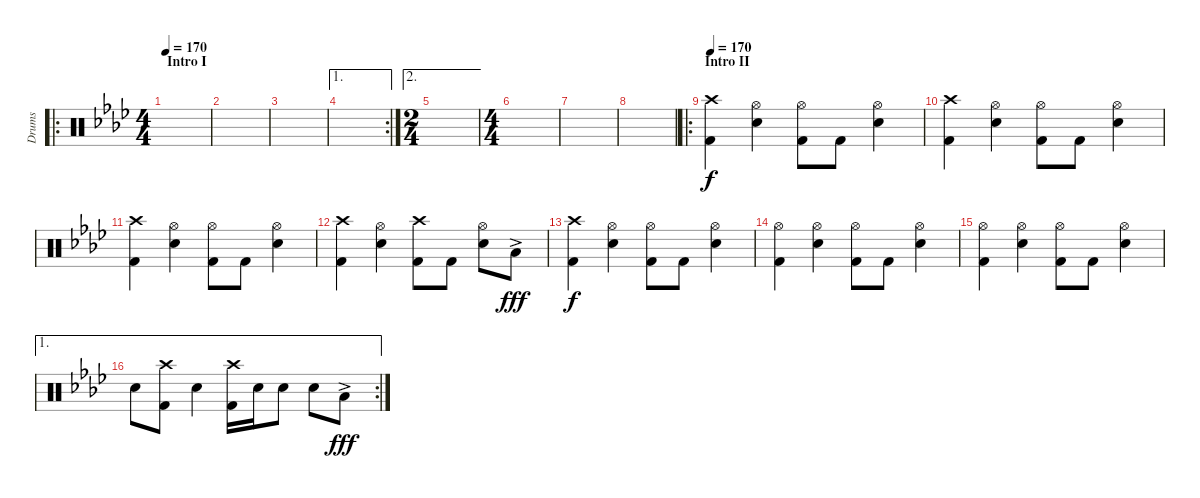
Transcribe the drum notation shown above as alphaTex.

\track ("Drums" "Drums") {instrument percussion}
\staff {score}
\articulation defaults
\ro
\ts (4 4)
\section ("" "Intro I")
\tempo 170
\tempo 130
\tempo 170
\clef neutral
\ks ab
|
|
|
\ae 1
\rc 2
|
\ae 2
\ts (2 4)
|
\ts (4 4)
|
|
|
\ro
\section ("" "Intro II")
\tempo 170
("Crash high (hit)" "Kick (hit) 2").4 ("Hi-Hat (open)" "Snare (hit) 2").4 ("Hi-Hat (open)" "Kick (hit) 2").8 "Kick (hit) 2".8 ("Hi-Hat (open)" "Snare (hit) 2").4 |
("Crash high (hit)" "Kick (hit) 2").4 ("Hi-Hat (open)" "Snare (hit) 2").4 ("Hi-Hat (open)" "Kick (hit) 2").8 "Kick (hit) 2".8 ("Hi-Hat (open)" "Snare (hit) 2").4 |
("Crash high (hit)" "Kick (hit) 2").4 ("Hi-Hat (open)" "Snare (hit) 2").4 ("Hi-Hat (open)" "Kick (hit) 2").8 "Kick (hit) 2".8 ("Hi-Hat (open)" "Snare (hit) 2").4 |
("Crash high (hit)" "Kick (hit) 2").4 ("Hi-Hat (open)" "Snare (hit) 2").4 ("Crash high (hit)" "Kick (hit) 2").8 "Kick (hit) 2".8 ("Hi-Hat (open)" "Snare (hit) 2").8 "Low Tom (hit)"{ac}.8{dy fff} |
("Crash high (hit)" "Kick (hit) 2").4{dy f} ("Hi-Hat (open)" "Snare (hit) 2").4 ("Hi-Hat (open)" "Kick (hit) 2").8 "Kick (hit) 2".8 ("Hi-Hat (open)" "Snare (hit) 2").4 |
("Hi-Hat (open)" "Kick (hit) 2").4 ("Hi-Hat (open)" "Snare (hit) 2").4 ("Hi-Hat (open)" "Kick (hit) 2").8 "Kick (hit) 2".8 ("Hi-Hat (open)" "Snare (hit) 2").4 |
("Hi-Hat (open)" "Kick (hit) 2").4 ("Hi-Hat (open)" "Snare (hit) 2").4 ("Hi-Hat (open)" "Kick (hit) 2").8 "Kick (hit) 2".8 ("Hi-Hat (open)" "Snare (hit) 2").4 |
\ae 1
\rc 2 "Snare (hit) 2".8
("Crash high (hit)" "Kick (hit) 2").8 "Snare (hit) 2".4 ("Crash high (hit)" "Kick (hit) 2").16 "Snare (hit) 2".16 "Snare (hit) 2".8 "Snare (hit) 2".8 "Low Floor Tom (hit)"{ac}.8{dy fff}
